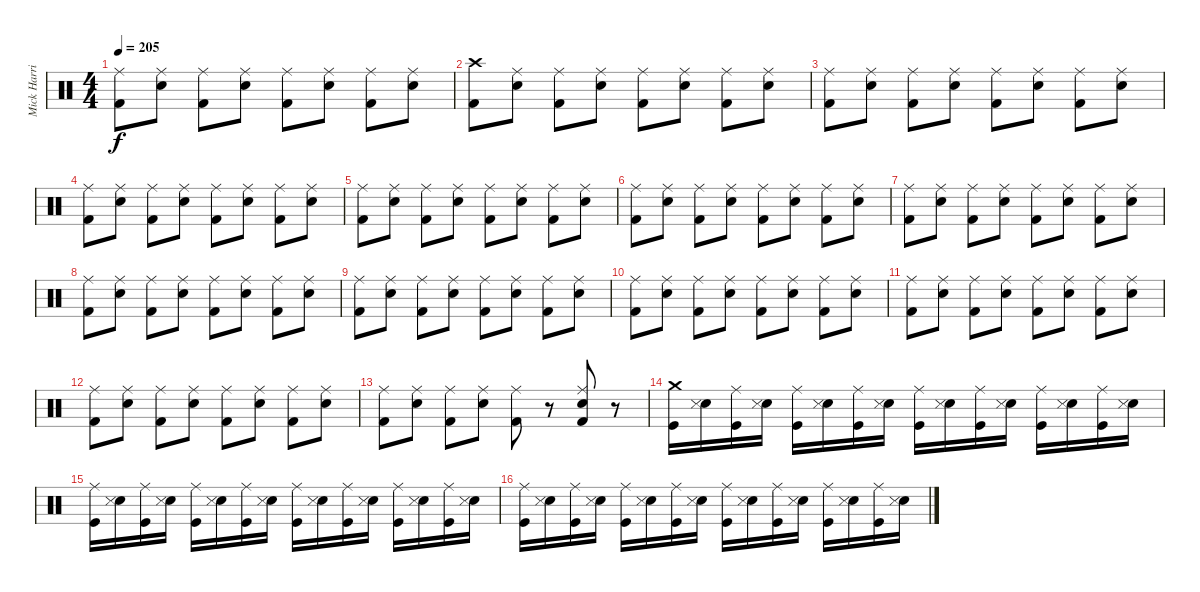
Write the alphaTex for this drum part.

\track ("Mick Harris (Drums)" "Mick Harri") {instrument percussion}
\staff {score}
\articulation defaults
\ts (4 4)
\tempo 205
\clef neutral
\ks c
("Kick (hit) 2" "Ride (middle)").8{dy f} ("Electric Snare (hit)" "Ride (middle)").8 ("Kick (hit) 2" "Ride (middle)").8 ("Electric Snare (hit)" "Ride (middle)").8 ("Kick (hit) 2" "Ride (middle)").8 ("Electric Snare (hit)" "Ride (middle)").8 ("Kick (hit) 2" "Ride (middle)").8 ("Electric Snare (hit)" "Ride (middle)").8 |
("Kick (hit) 2" "Crash high (hit)").8 ("Electric Snare (hit)" "Ride (middle)").8 ("Kick (hit) 2" "Ride (middle)").8 ("Electric Snare (hit)" "Ride (middle)").8 ("Kick (hit) 2" "Ride (middle)").8 ("Electric Snare (hit)" "Ride (middle)").8 ("Kick (hit) 2" "Ride (middle)").8 ("Electric Snare (hit)" "Ride (middle)").8 |
("Kick (hit) 2" "Ride (middle)").8 ("Electric Snare (hit)" "Ride (middle)").8 ("Kick (hit) 2" "Ride (middle)").8 ("Electric Snare (hit)" "Ride (middle)").8 ("Kick (hit) 2" "Ride (middle)").8 ("Electric Snare (hit)" "Ride (middle)").8 ("Kick (hit) 2" "Ride (middle)").8 ("Electric Snare (hit)" "Ride (middle)").8 |
("Kick (hit) 2" "Ride (middle)").8 ("Electric Snare (hit)" "Ride (middle)").8 ("Kick (hit) 2" "Ride (middle)").8 ("Electric Snare (hit)" "Ride (middle)").8 ("Kick (hit) 2" "Ride (middle)").8 ("Electric Snare (hit)" "Ride (middle)").8 ("Kick (hit) 2" "Ride (middle)").8 ("Electric Snare (hit)" "Ride (middle)").8 |
("Kick (hit) 2" "Ride (middle)").8 ("Electric Snare (hit)" "Ride (middle)").8 ("Kick (hit) 2" "Ride (middle)").8 ("Electric Snare (hit)" "Ride (middle)").8 ("Kick (hit) 2" "Ride (middle)").8 ("Electric Snare (hit)" "Ride (middle)").8 ("Kick (hit) 2" "Ride (middle)").8 ("Electric Snare (hit)" "Ride (middle)").8 |
("Kick (hit) 2" "Ride (middle)").8 ("Electric Snare (hit)" "Ride (middle)").8 ("Kick (hit) 2" "Ride (middle)").8 ("Electric Snare (hit)" "Ride (middle)").8 ("Kick (hit) 2" "Ride (middle)").8 ("Electric Snare (hit)" "Ride (middle)").8 ("Kick (hit) 2" "Ride (middle)").8 ("Electric Snare (hit)" "Ride (middle)").8 |
("Kick (hit) 2" "Ride (middle)").8 ("Electric Snare (hit)" "Ride (middle)").8 ("Kick (hit) 2" "Ride (middle)").8 ("Electric Snare (hit)" "Ride (middle)").8 ("Kick (hit) 2" "Ride (middle)").8 ("Electric Snare (hit)" "Ride (middle)").8 ("Kick (hit) 2" "Ride (middle)").8 ("Electric Snare (hit)" "Ride (middle)").8 |
("Kick (hit) 2" "Ride (middle)").8 ("Electric Snare (hit)" "Ride (middle)").8 ("Kick (hit) 2" "Ride (middle)").8 ("Electric Snare (hit)" "Ride (middle)").8 ("Kick (hit) 2" "Ride (middle)").8 ("Electric Snare (hit)" "Ride (middle)").8 ("Kick (hit) 2" "Ride (middle)").8 ("Electric Snare (hit)" "Ride (middle)").8 |
("Kick (hit) 2" "Ride (middle)").8 ("Electric Snare (hit)" "Ride (middle)").8 ("Kick (hit) 2" "Ride (middle)").8 ("Electric Snare (hit)" "Ride (middle)").8 ("Kick (hit) 2" "Ride (middle)").8 ("Electric Snare (hit)" "Ride (middle)").8 ("Kick (hit) 2" "Ride (middle)").8 ("Electric Snare (hit)" "Ride (middle)").8 |
("Kick (hit) 2" "Ride (middle)").8 ("Electric Snare (hit)" "Ride (middle)").8 ("Kick (hit) 2" "Ride (middle)").8 ("Electric Snare (hit)" "Ride (middle)").8 ("Kick (hit) 2" "Ride (middle)").8 ("Electric Snare (hit)" "Ride (middle)").8 ("Kick (hit) 2" "Ride (middle)").8 ("Electric Snare (hit)" "Ride (middle)").8 |
("Kick (hit) 2" "Ride (middle)").8 ("Electric Snare (hit)" "Ride (middle)").8 ("Kick (hit) 2" "Ride (middle)").8 ("Electric Snare (hit)" "Ride (middle)").8 ("Kick (hit) 2" "Ride (middle)").8 ("Electric Snare (hit)" "Ride (middle)").8 ("Kick (hit) 2" "Ride (middle)").8 ("Electric Snare (hit)" "Ride (middle)").8 |
("Kick (hit) 2" "Ride (middle)").8 ("Electric Snare (hit)" "Ride (middle)").8 ("Kick (hit) 2" "Ride (middle)").8 ("Electric Snare (hit)" "Ride (middle)").8 ("Kick (hit) 2" "Ride (middle)").8 ("Electric Snare (hit)" "Ride (middle)").8 ("Kick (hit) 2" "Ride (middle)").8 ("Electric Snare (hit)" "Ride (middle)").8 |
("Kick (hit) 2" "Ride (middle)").8 ("Electric Snare (hit)" "Ride (middle)").8 ("Kick (hit) 2" "Ride (middle)").8 ("Electric Snare (hit)" "Ride (middle)").8 ("Kick (hit) 2" "Ride (middle)").8 r.8 ("Kick (hit) 2" "Electric Snare (hit)" "Ride (middle)").8 r.8 |
("Kick (hit)" "Crash medium (hit)").16 ("Electric Snare (hit)" "Snare (side stick) 3").16 ("Kick (hit)" "Ride (middle)").16 ("Electric Snare (hit)" "Snare (side stick) 3").16 ("Kick (hit)" "Ride (middle)").16 ("Electric Snare (hit)" "Snare (side stick) 3").16 ("Kick (hit)" "Ride (middle)").16 ("Electric Snare (hit)" "Snare (side stick) 3").16 ("Kick (hit)" "Ride (middle)").16 ("Electric Snare (hit)" "Snare (side stick) 3").16 ("Kick (hit)" "Ride (middle)").16 ("Electric Snare (hit)" "Snare (side stick) 3").16 ("Kick (hit)" "Ride (middle)").16 ("Electric Snare (hit)" "Snare (side stick) 3").16 ("Kick (hit)" "Ride (middle)").16 ("Electric Snare (hit)" "Snare (side stick) 3").16 |
("Kick (hit)" "Ride (middle)").16 ("Electric Snare (hit)" "Snare (side stick) 3").16 ("Kick (hit)" "Ride (middle)").16 ("Electric Snare (hit)" "Snare (side stick) 3").16 ("Kick (hit)" "Ride (middle)").16 ("Electric Snare (hit)" "Snare (side stick) 3").16 ("Kick (hit)" "Ride (middle)").16 ("Electric Snare (hit)" "Snare (side stick) 3").16 ("Kick (hit)" "Ride (middle)").16 ("Electric Snare (hit)" "Snare (side stick) 3").16 ("Kick (hit)" "Ride (middle)").16 ("Electric Snare (hit)" "Snare (side stick) 3").16 ("Kick (hit)" "Ride (middle)").16 ("Electric Snare (hit)" "Snare (side stick) 3").16 ("Kick (hit)" "Ride (middle)").16 ("Electric Snare (hit)" "Snare (side stick) 3").16 |
("Kick (hit)" "Ride (middle)").16 ("Electric Snare (hit)" "Snare (side stick) 3").16 ("Kick (hit)" "Ride (middle)").16 ("Electric Snare (hit)" "Snare (side stick) 3").16 ("Kick (hit)" "Ride (middle)").16 ("Electric Snare (hit)" "Snare (side stick) 3").16 ("Kick (hit)" "Ride (middle)").16 ("Electric Snare (hit)" "Snare (side stick) 3").16 ("Kick (hit)" "Ride (middle)").16 ("Electric Snare (hit)" "Snare (side stick) 3").16 ("Kick (hit)" "Ride (middle)").16 ("Electric Snare (hit)" "Snare (side stick) 3").16 ("Kick (hit)" "Ride (middle)").16 ("Electric Snare (hit)" "Snare (side stick) 3").16 ("Kick (hit)" "Ride (middle)").16 ("Electric Snare (hit)" "Snare (side stick) 3").16
